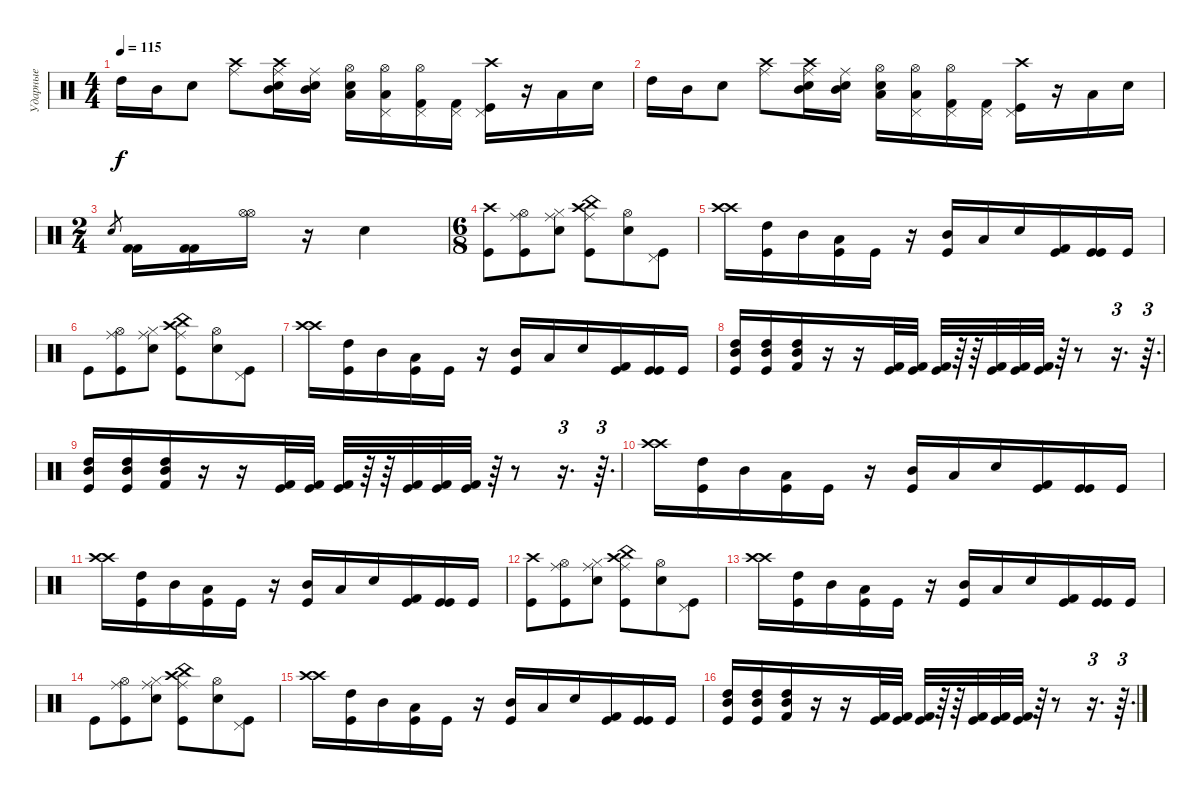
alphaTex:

\track ("Ударные" "Ударные") {instrument percussion}
\staff {score}
\articulation defaults
\ts (4 4)
\tempo 115
\clef neutral
\ks c "High Tom (hit)".16{dy f} "Mid Tom (hit)".16 "Electric Snare (hit)".8
("Crash high (hit)" "Ride (middle)").8 ("Crash high (hit)" "Mid Tom (hit)" "Electric Snare (hit)" "Ride (middle)").16 ("Mid Tom (hit)" "Electric Snare (hit)" "Ride (middle)").16 ("Electric Snare (hit)" "Low Tom (hit)" "Hi-Hat (open)").16 ("Hi-Hat (open)" "Low Tom (hit)" "Pedal Hi-Hat (hit)").16 ("Pedal Hi-Hat (hit)" "Kick (hit) 2" "Hi-Hat (open)").16 ("Kick (hit) 2" "Pedal Hi-Hat (hit)").16 ("Crash high (hit)" "Kick (hit)" "Pedal Hi-Hat (hit)").16 r.16 "Low Floor Tom (hit)".16 "Electric Snare (hit)".16 |
"High Tom (hit)".16 "Mid Tom (hit)".16 "Electric Snare (hit)".8 ("Crash high (hit)" "Ride (middle)").8 ("Crash high (hit)" "Mid Tom (hit)" "Electric Snare (hit)" "Ride (middle)").16 ("Mid Tom (hit)" "Electric Snare (hit)" "Ride (middle)").16 ("Electric Snare (hit)" "Low Tom (hit)" "Hi-Hat (open)").16 ("Hi-Hat (open)" "Low Tom (hit)" "Pedal Hi-Hat (hit)").16 ("Pedal Hi-Hat (hit)" "Kick (hit) 2" "Hi-Hat (open)").16 ("Kick (hit) 2" "Pedal Hi-Hat (hit)").16 ("Crash high (hit)" "Kick (hit)" "Pedal Hi-Hat (hit)").16 r.16 "Low Floor Tom (hit)".16 "Electric Snare (hit)".16 |
\ts (2 4)
"Electric Snare (hit)".8{gr} ("Kick (hit) 2" "Kick (hit) 2").16 ("Kick (hit) 2" "Kick (hit) 2").16 ("Hi-Hat (open)" "Hi-Hat (open)").16 r.16 "Electric Snare (hit)".4 |
\ts (6 8)
("Kick (hit)" "Crash high (hit)").8 ("Ride (middle)" "Kick (hit)" "Hi-Hat (open)").8 ("Ride (middle)" "Snare (hit) 2" "Hi-Hat (closed)").8 ("Ride (middle)" "Kick (hit)" "China (hit)" "Crash high (hit)").8 ("Hi-Hat (open)" "Electric Snare (hit)").8 ("Pedal Hi-Hat (hit)" "Kick (hit)").8 |
("Crash high (hit)" "Crash high (hit)").16 ("High Tom (hit)" "Kick (hit)").16 "Mid Tom (hit)".16 ("Low Tom (hit)" "Kick (hit)").16 "Kick (hit)".16 r.16 ("Mid Tom (hit)" "Kick (hit)").16 "Low Tom (hit)".16 "Snare (hit) 2".16 ("Kick (hit) 2" "Kick (hit)").16 ("Kick (hit)" "Kick (hit)").16 "Kick (hit)".16 |
"Kick (hit)".8 ("Ride (middle)" "Kick (hit)" "Hi-Hat (open)").8 ("Ride (middle)" "Snare (hit) 2" "Hi-Hat (closed)").8 ("Ride (middle)" "Kick (hit)" "China (hit)" "Crash high (hit)").8 ("Hi-Hat (open)" "Electric Snare (hit)").8 ("Pedal Hi-Hat (hit)" "Kick (hit)").8 |
("Crash high (hit)" "Crash high (hit)").16 ("High Tom (hit)" "Kick (hit)").16 "Mid Tom (hit)".16 ("Low Tom (hit)" "Kick (hit)").16 "Kick (hit)".16 r.16 ("Mid Tom (hit)" "Kick (hit)").16 "Low Tom (hit)".16 "Snare (hit) 2".16 ("Kick (hit) 2" "Kick (hit)").16 ("Kick (hit)" "Kick (hit)").16 "Kick (hit)".16 |
("High Tom (hit)" "Mid Tom (hit)" "Kick (hit)").16 ("High Tom (hit)" "Mid Tom (hit)" "Kick (hit)").16 ("High Tom (hit)" "Mid Tom (hit)" "Kick (hit) 2").16 r.16 r.16 ("Kick (hit)" "Kick (hit) 2").32 ("Kick (hit)" "Kick (hit) 2").32 ("Kick (hit)" "Kick (hit) 2").32 r.64 r.64 ("Kick (hit)" "Kick (hit) 2").32 ("Kick (hit)" "Kick (hit) 2").32 ("Kick (hit)" "Kick (hit) 2").32 r.64 r.8 r.16{d tu (3 2)} r.64{d tu (3 2)} |
("High Tom (hit)" "Mid Tom (hit)" "Kick (hit)").16 ("High Tom (hit)" "Mid Tom (hit)" "Kick (hit)").16 ("High Tom (hit)" "Mid Tom (hit)" "Kick (hit) 2").16 r.16 r.16 ("Kick (hit)" "Kick (hit) 2").32 ("Kick (hit)" "Kick (hit) 2").32 ("Kick (hit)" "Kick (hit) 2").32 r.64 r.64 ("Kick (hit)" "Kick (hit) 2").32 ("Kick (hit)" "Kick (hit) 2").32 ("Kick (hit)" "Kick (hit) 2").32 r.64 r.8 r.16{d tu (3 2)} r.64{d tu (3 2)} |
("Crash high (hit)" "Crash high (hit)").16 ("High Tom (hit)" "Kick (hit)").16 "Mid Tom (hit)".16 ("Low Tom (hit)" "Kick (hit)").16 "Kick (hit)".16 r.16 ("Mid Tom (hit)" "Kick (hit)").16 "Low Tom (hit)".16 "Snare (hit) 2".16 ("Kick (hit) 2" "Kick (hit)").16 ("Kick (hit)" "Kick (hit)").16 "Kick (hit)".16 |
("Crash high (hit)" "Crash high (hit)").16 ("High Tom (hit)" "Kick (hit)").16 "Mid Tom (hit)".16 ("Low Tom (hit)" "Kick (hit)").16 "Kick (hit)".16 r.16 ("Mid Tom (hit)" "Kick (hit)").16 "Low Tom (hit)".16 "Snare (hit) 2".16 ("Kick (hit) 2" "Kick (hit)").16 ("Kick (hit)" "Kick (hit)").16 "Kick (hit)".16 |
("Kick (hit)" "Crash high (hit)").8 ("Ride (middle)" "Kick (hit)" "Hi-Hat (open)").8 ("Ride (middle)" "Snare (hit) 2" "Hi-Hat (closed)").8 ("Ride (middle)" "Kick (hit)" "China (hit)" "Crash high (hit)").8 ("Hi-Hat (open)" "Electric Snare (hit)").8 ("Pedal Hi-Hat (hit)" "Kick (hit)").8 |
("Crash high (hit)" "Crash high (hit)").16 ("High Tom (hit)" "Kick (hit)").16 "Mid Tom (hit)".16 ("Low Tom (hit)" "Kick (hit)").16 "Kick (hit)".16 r.16 ("Mid Tom (hit)" "Kick (hit)").16 "Low Tom (hit)".16 "Snare (hit) 2".16 ("Kick (hit) 2" "Kick (hit)").16 ("Kick (hit)" "Kick (hit)").16 "Kick (hit)".16 |
"Kick (hit)".8 ("Ride (middle)" "Kick (hit)" "Hi-Hat (open)").8 ("Ride (middle)" "Snare (hit) 2" "Hi-Hat (closed)").8 ("Ride (middle)" "Kick (hit)" "China (hit)" "Crash high (hit)").8 ("Hi-Hat (open)" "Electric Snare (hit)").8 ("Pedal Hi-Hat (hit)" "Kick (hit)").8 |
("Crash high (hit)" "Crash high (hit)").16 ("High Tom (hit)" "Kick (hit)").16 "Mid Tom (hit)".16 ("Low Tom (hit)" "Kick (hit)").16 "Kick (hit)".16 r.16 ("Mid Tom (hit)" "Kick (hit)").16 "Low Tom (hit)".16 "Snare (hit) 2".16 ("Kick (hit) 2" "Kick (hit)").16 ("Kick (hit)" "Kick (hit)").16 "Kick (hit)".16 |
("High Tom (hit)" "Mid Tom (hit)" "Kick (hit)").16 ("High Tom (hit)" "Mid Tom (hit)" "Kick (hit)").16 ("High Tom (hit)" "Mid Tom (hit)" "Kick (hit) 2").16 r.16 r.16 ("Kick (hit)" "Kick (hit) 2").32 ("Kick (hit)" "Kick (hit) 2").32 ("Kick (hit)" "Kick (hit) 2").32 r.64 r.64 ("Kick (hit)" "Kick (hit) 2").32 ("Kick (hit)" "Kick (hit) 2").32 ("Kick (hit)" "Kick (hit) 2").32 r.64 r.8 r.16{d tu (3 2)} r.64{d tu (3 2)}
